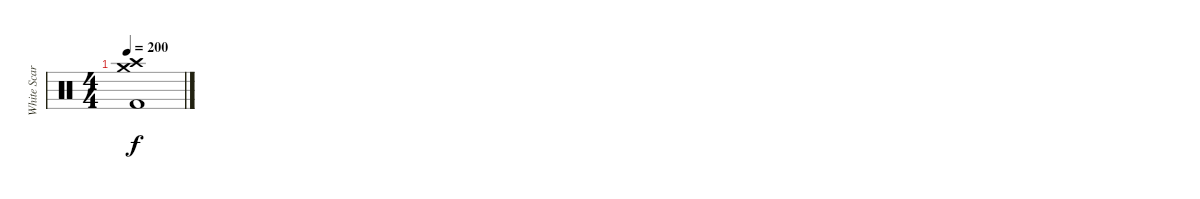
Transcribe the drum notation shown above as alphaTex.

\track ("White Scar" "White Scar") {instrument percussion}
\staff {score}
\articulation defaults
\ts (4 4)
\tempo 200
\clef neutral
\ks c
("Crash medium (hit)" "Crash high (hit)" "Kick (hit) 2").1{dy f}
